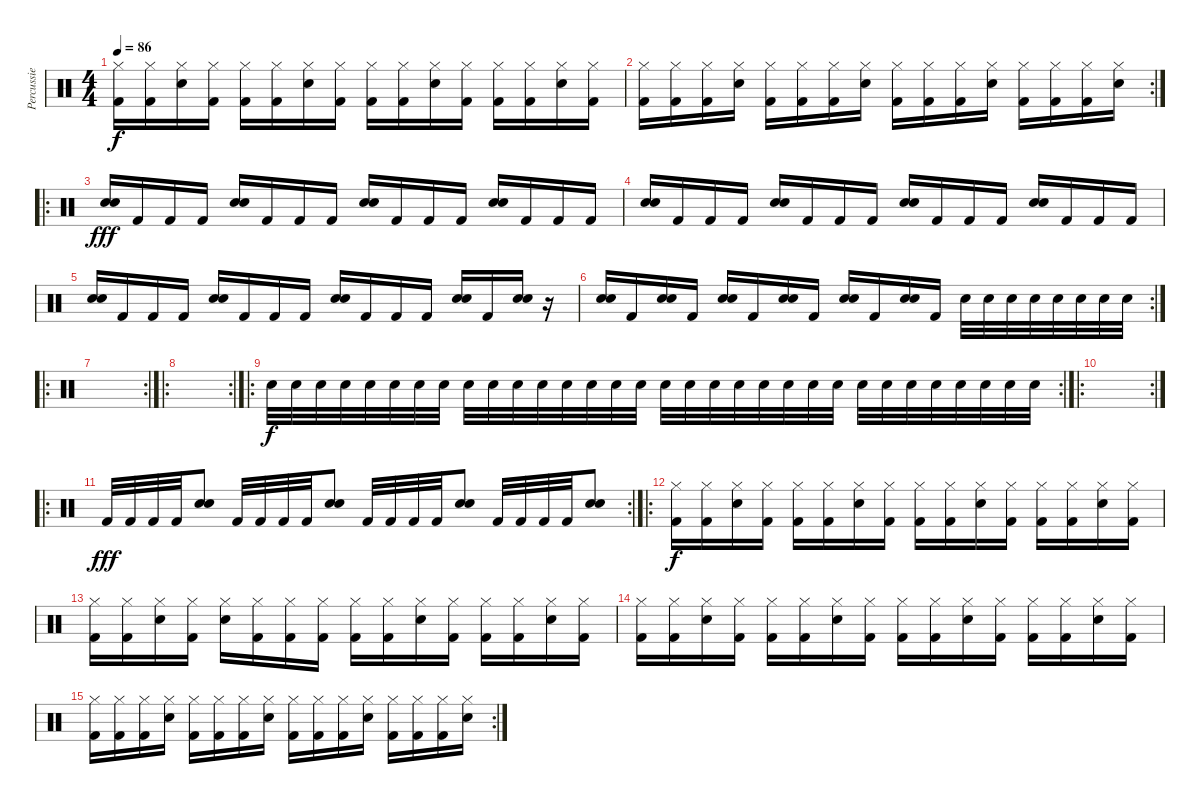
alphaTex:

\track ("Percussie" "Percussie") {instrument percussion}
\staff {score}
\articulation defaults
\ts (4 4)
\tempo 86
\clef neutral
\ks c
("Hi-Hat (closed)" "Kick (hit) 2").16{dy f} ("Hi-Hat (closed)" "Kick (hit) 2").16 ("Hi-Hat (closed)" "Snare (hit) 2").16 ("Hi-Hat (closed)" "Kick (hit) 2").16 ("Hi-Hat (closed)" "Kick (hit) 2").16 ("Hi-Hat (closed)" "Kick (hit) 2").16 ("Hi-Hat (closed)" "Snare (hit) 2").16 ("Hi-Hat (closed)" "Kick (hit) 2").16 ("Hi-Hat (closed)" "Kick (hit) 2").16 ("Hi-Hat (closed)" "Kick (hit) 2").16 ("Hi-Hat (closed)" "Snare (hit) 2").16 ("Hi-Hat (closed)" "Kick (hit) 2").16 ("Hi-Hat (closed)" "Kick (hit) 2").16 ("Hi-Hat (closed)" "Kick (hit) 2").16 ("Hi-Hat (closed)" "Snare (hit) 2").16 ("Hi-Hat (closed)" "Kick (hit) 2").16 |
\rc 2
("Hi-Hat (closed)" "Kick (hit) 2").16 ("Hi-Hat (closed)" "Kick (hit) 2").16 ("Hi-Hat (closed)" "Kick (hit) 2").16 ("Hi-Hat (closed)" "Snare (hit) 2").16 ("Hi-Hat (closed)" "Kick (hit) 2").16 ("Hi-Hat (closed)" "Kick (hit) 2").16 ("Hi-Hat (closed)" "Kick (hit) 2").16 ("Hi-Hat (closed)" "Snare (hit) 2").16 ("Hi-Hat (closed)" "Kick (hit) 2").16 ("Hi-Hat (closed)" "Kick (hit) 2").16 ("Hi-Hat (closed)" "Kick (hit) 2").16 ("Hi-Hat (closed)" "Snare (hit) 2").16 ("Hi-Hat (closed)" "Kick (hit) 2").16 ("Hi-Hat (closed)" "Kick (hit) 2").16 ("Hi-Hat (closed)" "Kick (hit) 2").16 ("Hi-Hat (closed)" "Snare (hit) 2").16 |
\ro
("Snare (hit) 2" "Snare (hit) 2").16{bd 480 dy fff} "Kick (hit) 2".16 "Kick (hit) 2".16 "Kick (hit) 2".16 ("Snare (hit) 2" "Snare (hit) 2").16{bd 480} "Kick (hit) 2".16 "Kick (hit) 2".16 "Kick (hit) 2".16 ("Snare (hit) 2" "Snare (hit) 2").16{bd 480} "Kick (hit) 2".16 "Kick (hit) 2".16 "Kick (hit) 2".16 ("Snare (hit) 2" "Snare (hit) 2").16{bd 480} "Kick (hit) 2".16 "Kick (hit) 2".16 "Kick (hit) 2".16 |
("Snare (hit) 2" "Snare (hit) 2").16{bd 480} "Kick (hit) 2".16 "Kick (hit) 2".16 "Kick (hit) 2".16 ("Snare (hit) 2" "Snare (hit) 2").16{bd 480} "Kick (hit) 2".16 "Kick (hit) 2".16 "Kick (hit) 2".16 ("Snare (hit) 2" "Snare (hit) 2").16{bd 480} "Kick (hit) 2".16 "Kick (hit) 2".16 "Kick (hit) 2".16 ("Snare (hit) 2" "Snare (hit) 2").16{bd 480} "Kick (hit) 2".16 "Kick (hit) 2".16 "Kick (hit) 2".16 |
("Snare (hit) 2" "Snare (hit) 2").16{bd 480} "Kick (hit) 2".16 "Kick (hit) 2".16 "Kick (hit) 2".16 ("Snare (hit) 2" "Snare (hit) 2").16{bd 480} "Kick (hit) 2".16 "Kick (hit) 2".16 "Kick (hit) 2".16 ("Snare (hit) 2" "Snare (hit) 2").16{bd 480} "Kick (hit) 2".16 "Kick (hit) 2".16 "Kick (hit) 2".16 ("Snare (hit) 2" "Snare (hit) 2").16{bd 480} "Kick (hit) 2".16 ("Snare (hit) 2" "Snare (hit) 2").16{bd 480} r.16 |
\rc 2
("Snare (hit) 2" "Snare (hit) 2").16{bd 480} "Kick (hit) 2".16 ("Snare (hit) 2" "Snare (hit) 2").16{bd 480} "Kick (hit) 2".16 ("Snare (hit) 2" "Snare (hit) 2").16{bd 480} "Kick (hit) 2".16 ("Snare (hit) 2" "Snare (hit) 2").16{bd 480} "Kick (hit) 2".16 ("Snare (hit) 2" "Snare (hit) 2").16{bd 480} "Kick (hit) 2".16 ("Snare (hit) 2" "Snare (hit) 2").16{bd 480} "Kick (hit) 2".16 "Snare (hit) 2".32 "Snare (hit) 2".32 "Snare (hit) 2".32 "Snare (hit) 2".32 "Snare (hit) 2".32 "Snare (hit) 2".32 "Snare (hit) 2".32 "Snare (hit) 2".32 |
\ro
\rc 2
|
\ro
\rc 2
|
\ro
\rc 2 "Snare (hit) 2".32{dy f} "Snare (hit) 2".32 "Snare (hit) 2".32 "Snare (hit) 2".32 "Snare (hit) 2".32 "Snare (hit) 2".32 "Snare (hit) 2".32 "Snare (hit) 2".32 "Snare (hit) 2".32 "Snare (hit) 2".32 "Snare (hit) 2".32 "Snare (hit) 2".32 "Snare (hit) 2".32 "Snare (hit) 2".32 "Snare (hit) 2".32 "Snare (hit) 2".32 "Snare (hit) 2".32 "Snare (hit) 2".32 "Snare (hit) 2".32 "Snare (hit) 2".32 "Snare (hit) 2".32 "Snare (hit) 2".32 "Snare (hit) 2".32 "Snare (hit) 2".32 "Snare (hit) 2".32 "Snare (hit) 2".32 "Snare (hit) 2".32 "Snare (hit) 2".32 "Snare (hit) 2".32 "Snare (hit) 2".32 "Snare (hit) 2".32 "Snare (hit) 2".32
|
\ro
\rc 2
|
\ro
\rc 2 "Kick (hit) 2".32{dy fff} "Kick (hit) 2".32 "Kick (hit) 2".32 "Kick (hit) 2".32
("Snare (hit) 2" "Snare (hit) 2").8{bd 480} "Kick (hit) 2".32 "Kick (hit) 2".32 "Kick (hit) 2".32 "Kick (hit) 2".32 ("Snare (hit) 2" "Snare (hit) 2").8{bd 480} "Kick (hit) 2".32 "Kick (hit) 2".32 "Kick (hit) 2".32 "Kick (hit) 2".32 ("Snare (hit) 2" "Snare (hit) 2").8{bd 480} "Kick (hit) 2".32 "Kick (hit) 2".32 "Kick (hit) 2".32 "Kick (hit) 2".32 ("Snare (hit) 2" "Snare (hit) 2").8{bd 480} |
\ro
("Hi-Hat (closed)" "Kick (hit) 2").16{dy f} ("Hi-Hat (closed)" "Kick (hit) 2").16 ("Hi-Hat (closed)" "Snare (hit) 2").16 ("Hi-Hat (closed)" "Kick (hit) 2").16 ("Hi-Hat (closed)" "Kick (hit) 2").16 ("Hi-Hat (closed)" "Kick (hit) 2").16 ("Hi-Hat (closed)" "Snare (hit) 2").16 ("Hi-Hat (closed)" "Kick (hit) 2").16 ("Hi-Hat (closed)" "Kick (hit) 2").16 ("Hi-Hat (closed)" "Kick (hit) 2").16 ("Hi-Hat (closed)" "Snare (hit) 2").16 ("Hi-Hat (closed)" "Kick (hit) 2").16 ("Hi-Hat (closed)" "Kick (hit) 2").16 ("Hi-Hat (closed)" "Kick (hit) 2").16 ("Hi-Hat (closed)" "Snare (hit) 2").16 ("Hi-Hat (closed)" "Kick (hit) 2").16 |
("Hi-Hat (closed)" "Kick (hit) 2").16 ("Hi-Hat (closed)" "Kick (hit) 2").16 ("Hi-Hat (closed)" "Snare (hit) 2").16 ("Hi-Hat (closed)" "Kick (hit) 2").16 ("Hi-Hat (closed)" "Snare (hit) 2").16 ("Hi-Hat (closed)" "Kick (hit) 2").16 ("Hi-Hat (closed)" "Kick (hit) 2").16 ("Hi-Hat (closed)" "Kick (hit) 2").16 ("Hi-Hat (closed)" "Kick (hit) 2").16 ("Hi-Hat (closed)" "Kick (hit) 2").16 ("Hi-Hat (closed)" "Snare (hit) 2").16 ("Hi-Hat (closed)" "Kick (hit) 2").16 ("Hi-Hat (closed)" "Kick (hit) 2").16 ("Hi-Hat (closed)" "Kick (hit) 2").16 ("Hi-Hat (closed)" "Snare (hit) 2").16 ("Hi-Hat (closed)" "Kick (hit) 2").16 |
("Hi-Hat (closed)" "Kick (hit) 2").16 ("Hi-Hat (closed)" "Kick (hit) 2").16 ("Hi-Hat (closed)" "Snare (hit) 2").16 ("Hi-Hat (closed)" "Kick (hit) 2").16 ("Hi-Hat (closed)" "Kick (hit) 2").16 ("Hi-Hat (closed)" "Kick (hit) 2").16 ("Hi-Hat (closed)" "Snare (hit) 2").16 ("Hi-Hat (closed)" "Kick (hit) 2").16 ("Hi-Hat (closed)" "Kick (hit) 2").16 ("Hi-Hat (closed)" "Kick (hit) 2").16 ("Hi-Hat (closed)" "Snare (hit) 2").16 ("Hi-Hat (closed)" "Kick (hit) 2").16 ("Hi-Hat (closed)" "Kick (hit) 2").16 ("Hi-Hat (closed)" "Kick (hit) 2").16 ("Hi-Hat (closed)" "Snare (hit) 2").16 ("Hi-Hat (closed)" "Kick (hit) 2").16 |
\rc 2
("Hi-Hat (closed)" "Kick (hit) 2").16 ("Hi-Hat (closed)" "Kick (hit) 2").16 ("Hi-Hat (closed)" "Kick (hit) 2").16 ("Hi-Hat (closed)" "Snare (hit) 2").16 ("Hi-Hat (closed)" "Kick (hit) 2").16 ("Hi-Hat (closed)" "Kick (hit) 2").16 ("Hi-Hat (closed)" "Kick (hit) 2").16 ("Hi-Hat (closed)" "Snare (hit) 2").16 ("Hi-Hat (closed)" "Kick (hit) 2").16 ("Hi-Hat (closed)" "Kick (hit) 2").16 ("Hi-Hat (closed)" "Kick (hit) 2").16 ("Hi-Hat (closed)" "Snare (hit) 2").16 ("Hi-Hat (closed)" "Kick (hit) 2").16 ("Hi-Hat (closed)" "Kick (hit) 2").16 ("Hi-Hat (closed)" "Kick (hit) 2").16 ("Hi-Hat (closed)" "Snare (hit) 2").16
